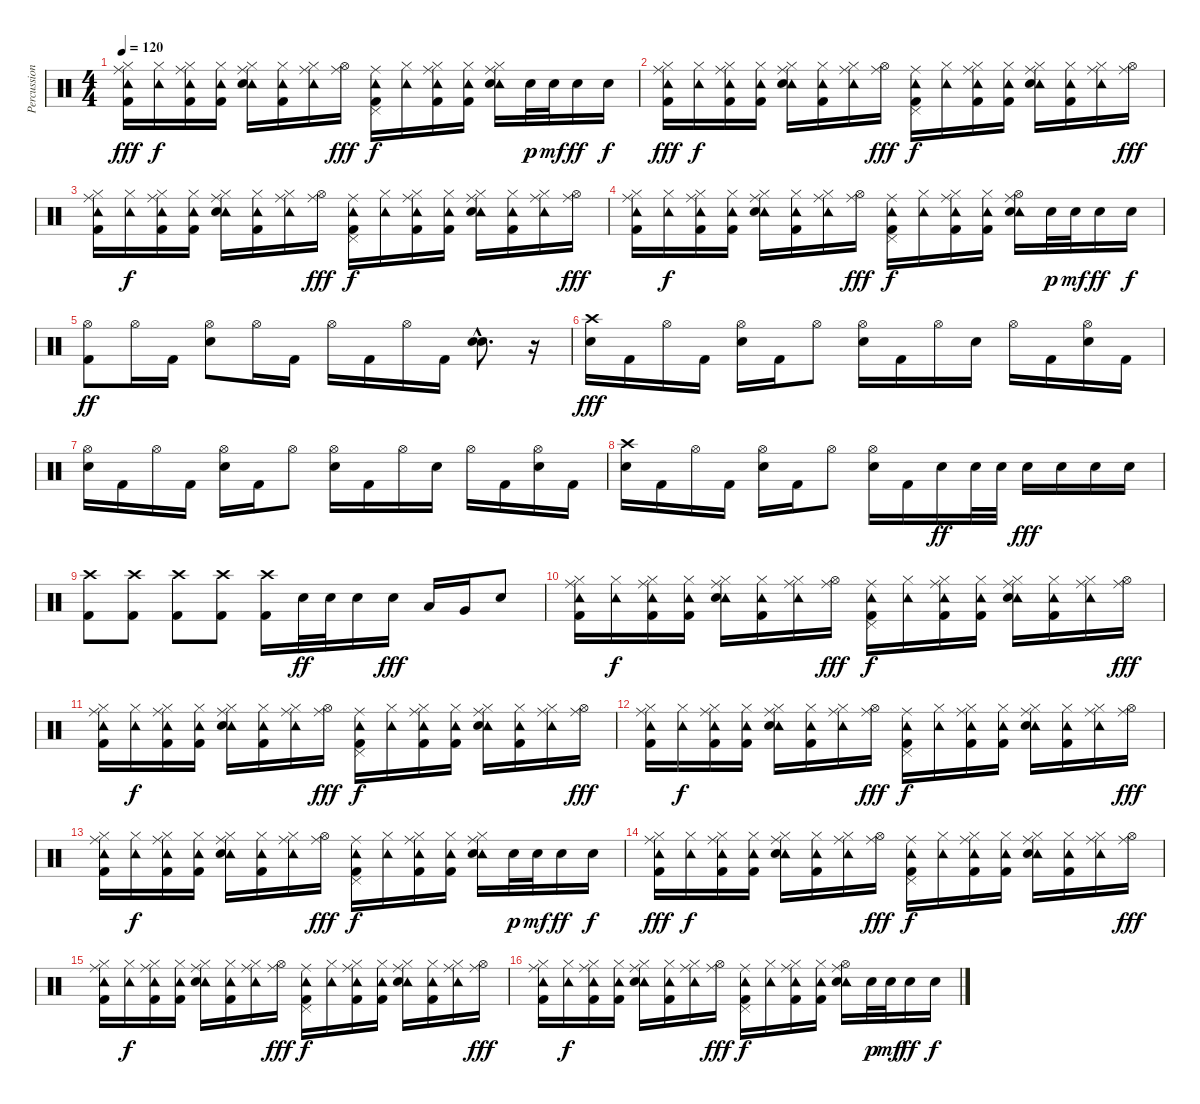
\track ("Percussion" "Percussion") {instrument percussion}
\staff {score}
\articulation defaults
\ts (4 4)
\tempo 120
\clef neutral
\ks c
("Tambourine (hit)" "Ride (middle)" "Hi-Hat (closed)" "Kick (hit) 2").16{dy fff} ("Tambourine (hit)" "Hi-Hat (closed)").16{dy f} ("Tambourine (hit)" "Ride (middle)" "Hi-Hat (closed)" "Kick (hit) 2").16 ("Tambourine (hit)" "Hi-Hat (closed)" "Kick (hit) 2").16 ("Tambourine (hit)" "Ride (middle)" "Hi-Hat (closed)" "Electric Snare (hit)").16 ("Tambourine (hit)" "Hi-Hat (closed)" "Kick (hit) 2").16 ("Tambourine (hit)" "Ride (middle)" "Hi-Hat (closed)").16 ("Ride (middle)" "Hi-Hat (open)").16{dy fff} ("Tambourine (hit)" "Ride (middle)" "Pedal Hi-Hat (hit)" "Kick (hit) 2").16{dy f} ("Tambourine (hit)" "Hi-Hat (closed)").16 ("Tambourine (hit)" "Ride (middle)" "Hi-Hat (closed)" "Kick (hit) 2").16 ("Tambourine (hit)" "Hi-Hat (closed)" "Kick (hit) 2").16 ("Tambourine (hit)" "Ride (middle)" "Hi-Hat (closed)" "Electric Snare (hit)").16 "Electric Snare (hit)".32{dy p} "Electric Snare (hit)".32{dy mf} "Electric Snare (hit)".16{dy ff} "Electric Snare (hit)".16{dy f} |
("Tambourine (hit)" "Ride (middle)" "Hi-Hat (closed)" "Kick (hit) 2").16{dy fff} ("Tambourine (hit)" "Hi-Hat (closed)").16{dy f} ("Tambourine (hit)" "Ride (middle)" "Hi-Hat (closed)" "Kick (hit) 2").16 ("Tambourine (hit)" "Hi-Hat (closed)" "Kick (hit) 2").16 ("Tambourine (hit)" "Ride (middle)" "Hi-Hat (closed)" "Electric Snare (hit)").16 ("Tambourine (hit)" "Hi-Hat (closed)" "Kick (hit) 2").16 ("Tambourine (hit)" "Ride (middle)" "Hi-Hat (closed)").16 ("Ride (middle)" "Hi-Hat (open)").16{dy fff} ("Tambourine (hit)" "Ride (middle)" "Pedal Hi-Hat (hit)" "Kick (hit) 2").16{dy f} ("Tambourine (hit)" "Hi-Hat (closed)").16 ("Tambourine (hit)" "Ride (middle)" "Hi-Hat (closed)" "Kick (hit) 2").16 ("Tambourine (hit)" "Hi-Hat (closed)" "Kick (hit) 2").16 ("Tambourine (hit)" "Ride (middle)" "Hi-Hat (closed)" "Electric Snare (hit)").16 ("Tambourine (hit)" "Hi-Hat (closed)" "Kick (hit) 2").16 ("Tambourine (hit)" "Ride (middle)" "Hi-Hat (closed)").16 ("Ride (middle)" "Hi-Hat (open)").16{dy fff} |
("Tambourine (hit)" "Ride (middle)" "Hi-Hat (closed)" "Kick (hit) 2").16 ("Tambourine (hit)" "Hi-Hat (closed)").16{dy f} ("Tambourine (hit)" "Ride (middle)" "Hi-Hat (closed)" "Kick (hit) 2").16 ("Tambourine (hit)" "Hi-Hat (closed)" "Kick (hit) 2").16 ("Tambourine (hit)" "Ride (middle)" "Hi-Hat (closed)" "Electric Snare (hit)").16 ("Tambourine (hit)" "Hi-Hat (closed)" "Kick (hit) 2").16 ("Tambourine (hit)" "Ride (middle)" "Hi-Hat (closed)").16 ("Ride (middle)" "Hi-Hat (open)").16{dy fff} ("Tambourine (hit)" "Ride (middle)" "Pedal Hi-Hat (hit)" "Kick (hit) 2").16{dy f} ("Tambourine (hit)" "Hi-Hat (closed)").16 ("Tambourine (hit)" "Ride (middle)" "Hi-Hat (closed)" "Kick (hit) 2").16 ("Tambourine (hit)" "Hi-Hat (closed)" "Kick (hit) 2").16 ("Tambourine (hit)" "Ride (middle)" "Hi-Hat (closed)" "Electric Snare (hit)").16 ("Tambourine (hit)" "Hi-Hat (closed)" "Kick (hit) 2").16 ("Tambourine (hit)" "Ride (middle)" "Hi-Hat (closed)").16 ("Ride (middle)" "Hi-Hat (open)").16{dy fff} |
("Tambourine (hit)" "Ride (middle)" "Hi-Hat (closed)" "Kick (hit) 2").16 ("Tambourine (hit)" "Hi-Hat (closed)").16{dy f} ("Tambourine (hit)" "Ride (middle)" "Hi-Hat (closed)" "Kick (hit) 2").16 ("Tambourine (hit)" "Hi-Hat (closed)" "Kick (hit) 2").16 ("Tambourine (hit)" "Ride (middle)" "Hi-Hat (closed)" "Electric Snare (hit)").16 ("Tambourine (hit)" "Hi-Hat (closed)" "Kick (hit) 2").16 ("Tambourine (hit)" "Ride (middle)" "Hi-Hat (closed)").16 ("Ride (middle)" "Hi-Hat (open)").16{dy fff} ("Tambourine (hit)" "Ride (middle)" "Pedal Hi-Hat (hit)" "Kick (hit) 2").16{dy f} ("Tambourine (hit)" "Hi-Hat (closed)").16 ("Tambourine (hit)" "Ride (middle)" "Hi-Hat (closed)" "Kick (hit) 2").16 ("Tambourine (hit)" "Hi-Hat (closed)" "Kick (hit) 2").16 ("Tambourine (hit)" "Ride (middle)" "Hi-Hat (open)" "Electric Snare (hit)").16 "Electric Snare (hit)".32{dy p} "Electric Snare (hit)".32{dy mf} "Electric Snare (hit)".16{dy ff} "Electric Snare (hit)".16{dy f} |
("Hi-Hat (open)" "Kick (hit) 2").8{dy ff} "Hi-Hat (open)".16 "Kick (hit) 2".16 ("Hi-Hat (open)" "Electric Snare (hit)").8 "Hi-Hat (open)".16 "Kick (hit) 2".16 "Hi-Hat (open)".16 "Kick (hit) 2".16 "Hi-Hat (open)".16 "Kick (hit) 2".16 ("Electric Snare (hit)" "Electric Snare (hit)"{hac}).8{d} r.16 |
("Crash high (hit)" "Electric Snare (hit)").16{dy fff} "Kick (hit) 2".16 "Hi-Hat (open)".16 "Kick (hit) 2".16 ("Hi-Hat (open)" "Electric Snare (hit)").16 "Kick (hit) 2".16 "Hi-Hat (open)".8 ("Hi-Hat (open)" "Electric Snare (hit)").16 "Kick (hit) 2".16 "Hi-Hat (open)".16 "Electric Snare (hit)".16 "Hi-Hat (open)".16 "Kick (hit) 2".16 ("Hi-Hat (open)" "Electric Snare (hit)").16 "Kick (hit) 2".16 |
("Hi-Hat (open)" "Electric Snare (hit)").16 "Kick (hit) 2".16 "Hi-Hat (open)".16 "Kick (hit) 2".16 ("Hi-Hat (open)" "Electric Snare (hit)").16 "Kick (hit) 2".16 "Hi-Hat (open)".8 ("Hi-Hat (open)" "Electric Snare (hit)").16 "Kick (hit) 2".16 "Hi-Hat (open)".16 "Electric Snare (hit)".16 "Hi-Hat (open)".16 "Kick (hit) 2".16 ("Hi-Hat (open)" "Electric Snare (hit)").16 "Kick (hit) 2".16 |
("Crash high (hit)" "Electric Snare (hit)").16 "Kick (hit) 2".16 "Hi-Hat (open)".16 "Kick (hit) 2".16 ("Hi-Hat (open)" "Electric Snare (hit)").16 "Kick (hit) 2".16 "Hi-Hat (open)".8 ("Hi-Hat (open)" "Electric Snare (hit)").16 "Kick (hit) 2".16 "Electric Snare (hit)".16{dy ff} "Electric Snare (hit)".32 "Electric Snare (hit)".32 "Electric Snare (hit)".16{dy fff} "Electric Snare (hit)".16 "Electric Snare (hit)".16 "Electric Snare (hit)".16 |
("Crash high (hit)" "Kick (hit) 2").8 ("Crash high (hit)" "Kick (hit) 2").8 ("Crash high (hit)" "Kick (hit) 2").8 ("Crash high (hit)" "Kick (hit) 2").8 ("Crash high (hit)" "Kick (hit) 2").16 "Electric Snare (hit)".32{dy ff} "Electric Snare (hit)".32 "Electric Snare (hit)".16 "Electric Snare (hit)".16{dy fff} "Low Tom (hit)".16 "Very Low Tom (hit)".16 "Electric Snare (hit)".8 |
("Tambourine (hit)" "Ride (middle)" "Hi-Hat (closed)" "Kick (hit) 2").16 ("Tambourine (hit)" "Hi-Hat (closed)").16{dy f} ("Tambourine (hit)" "Ride (middle)" "Hi-Hat (closed)" "Kick (hit) 2").16 ("Tambourine (hit)" "Hi-Hat (closed)" "Kick (hit) 2").16 ("Tambourine (hit)" "Ride (middle)" "Hi-Hat (closed)" "Electric Snare (hit)").16 ("Tambourine (hit)" "Hi-Hat (closed)" "Kick (hit) 2").16 ("Tambourine (hit)" "Ride (middle)" "Hi-Hat (closed)").16 ("Ride (middle)" "Hi-Hat (open)").16{dy fff} ("Tambourine (hit)" "Ride (middle)" "Pedal Hi-Hat (hit)" "Kick (hit) 2").16{dy f} ("Tambourine (hit)" "Hi-Hat (closed)").16 ("Tambourine (hit)" "Ride (middle)" "Hi-Hat (closed)" "Kick (hit) 2").16 ("Tambourine (hit)" "Hi-Hat (closed)" "Kick (hit) 2").16 ("Tambourine (hit)" "Ride (middle)" "Hi-Hat (closed)" "Electric Snare (hit)").16 ("Tambourine (hit)" "Hi-Hat (closed)" "Kick (hit) 2").16 ("Tambourine (hit)" "Ride (middle)" "Hi-Hat (closed)").16 ("Ride (middle)" "Hi-Hat (open)").16{dy fff} |
("Tambourine (hit)" "Ride (middle)" "Hi-Hat (closed)" "Kick (hit) 2").16 ("Tambourine (hit)" "Hi-Hat (closed)").16{dy f} ("Tambourine (hit)" "Ride (middle)" "Hi-Hat (closed)" "Kick (hit) 2").16 ("Tambourine (hit)" "Hi-Hat (closed)" "Kick (hit) 2").16 ("Tambourine (hit)" "Ride (middle)" "Hi-Hat (closed)" "Electric Snare (hit)").16 ("Tambourine (hit)" "Hi-Hat (closed)" "Kick (hit) 2").16 ("Tambourine (hit)" "Ride (middle)" "Hi-Hat (closed)").16 ("Ride (middle)" "Hi-Hat (open)").16{dy fff} ("Tambourine (hit)" "Ride (middle)" "Pedal Hi-Hat (hit)" "Kick (hit) 2").16{dy f} ("Tambourine (hit)" "Hi-Hat (closed)").16 ("Tambourine (hit)" "Ride (middle)" "Hi-Hat (closed)" "Kick (hit) 2").16 ("Tambourine (hit)" "Hi-Hat (closed)" "Kick (hit) 2").16 ("Tambourine (hit)" "Ride (middle)" "Hi-Hat (closed)" "Electric Snare (hit)").16 ("Tambourine (hit)" "Hi-Hat (closed)" "Kick (hit) 2").16 ("Tambourine (hit)" "Ride (middle)" "Hi-Hat (closed)").16 ("Ride (middle)" "Hi-Hat (open)").16{dy fff} |
("Tambourine (hit)" "Ride (middle)" "Hi-Hat (closed)" "Kick (hit) 2").16 ("Tambourine (hit)" "Hi-Hat (closed)").16{dy f} ("Tambourine (hit)" "Ride (middle)" "Hi-Hat (closed)" "Kick (hit) 2").16 ("Tambourine (hit)" "Hi-Hat (closed)" "Kick (hit) 2").16 ("Tambourine (hit)" "Ride (middle)" "Hi-Hat (closed)" "Electric Snare (hit)").16 ("Tambourine (hit)" "Hi-Hat (closed)" "Kick (hit) 2").16 ("Tambourine (hit)" "Ride (middle)" "Hi-Hat (closed)").16 ("Ride (middle)" "Hi-Hat (open)").16{dy fff} ("Tambourine (hit)" "Ride (middle)" "Pedal Hi-Hat (hit)" "Kick (hit) 2").16{dy f} ("Tambourine (hit)" "Hi-Hat (closed)").16 ("Tambourine (hit)" "Ride (middle)" "Hi-Hat (closed)" "Kick (hit) 2").16 ("Tambourine (hit)" "Hi-Hat (closed)" "Kick (hit) 2").16 ("Tambourine (hit)" "Ride (middle)" "Hi-Hat (closed)" "Electric Snare (hit)").16 ("Tambourine (hit)" "Hi-Hat (closed)" "Kick (hit) 2").16 ("Tambourine (hit)" "Ride (middle)" "Hi-Hat (closed)").16 ("Ride (middle)" "Hi-Hat (open)").16{dy fff} |
("Tambourine (hit)" "Ride (middle)" "Hi-Hat (closed)" "Kick (hit) 2").16 ("Tambourine (hit)" "Hi-Hat (closed)").16{dy f} ("Tambourine (hit)" "Ride (middle)" "Hi-Hat (closed)" "Kick (hit) 2").16 ("Tambourine (hit)" "Hi-Hat (closed)" "Kick (hit) 2").16 ("Tambourine (hit)" "Ride (middle)" "Hi-Hat (closed)" "Electric Snare (hit)").16 ("Tambourine (hit)" "Hi-Hat (closed)" "Kick (hit) 2").16 ("Tambourine (hit)" "Ride (middle)" "Hi-Hat (closed)").16 ("Ride (middle)" "Hi-Hat (open)").16{dy fff} ("Tambourine (hit)" "Ride (middle)" "Pedal Hi-Hat (hit)" "Kick (hit) 2").16{dy f} ("Tambourine (hit)" "Hi-Hat (closed)").16 ("Tambourine (hit)" "Ride (middle)" "Hi-Hat (closed)" "Kick (hit) 2").16 ("Tambourine (hit)" "Hi-Hat (closed)" "Kick (hit) 2").16 ("Tambourine (hit)" "Ride (middle)" "Hi-Hat (closed)" "Electric Snare (hit)").16 "Electric Snare (hit)".32{dy p} "Electric Snare (hit)".32{dy mf} "Electric Snare (hit)".16{dy ff} "Electric Snare (hit)".16{dy f} |
("Tambourine (hit)" "Ride (middle)" "Hi-Hat (closed)" "Kick (hit) 2").16{dy fff} ("Tambourine (hit)" "Hi-Hat (closed)").16{dy f} ("Tambourine (hit)" "Ride (middle)" "Hi-Hat (closed)" "Kick (hit) 2").16 ("Tambourine (hit)" "Hi-Hat (closed)" "Kick (hit) 2").16 ("Tambourine (hit)" "Ride (middle)" "Hi-Hat (closed)" "Electric Snare (hit)").16 ("Tambourine (hit)" "Hi-Hat (closed)" "Kick (hit) 2").16 ("Tambourine (hit)" "Ride (middle)" "Hi-Hat (closed)").16 ("Ride (middle)" "Hi-Hat (open)").16{dy fff} ("Tambourine (hit)" "Ride (middle)" "Pedal Hi-Hat (hit)" "Kick (hit) 2").16{dy f} ("Tambourine (hit)" "Hi-Hat (closed)").16 ("Tambourine (hit)" "Ride (middle)" "Hi-Hat (closed)" "Kick (hit) 2").16 ("Tambourine (hit)" "Hi-Hat (closed)" "Kick (hit) 2").16 ("Tambourine (hit)" "Ride (middle)" "Hi-Hat (closed)" "Electric Snare (hit)").16 ("Tambourine (hit)" "Hi-Hat (closed)" "Kick (hit) 2").16 ("Tambourine (hit)" "Ride (middle)" "Hi-Hat (closed)").16 ("Ride (middle)" "Hi-Hat (open)").16{dy fff} |
("Tambourine (hit)" "Ride (middle)" "Hi-Hat (closed)" "Kick (hit) 2").16 ("Tambourine (hit)" "Hi-Hat (closed)").16{dy f} ("Tambourine (hit)" "Ride (middle)" "Hi-Hat (closed)" "Kick (hit) 2").16 ("Tambourine (hit)" "Hi-Hat (closed)" "Kick (hit) 2").16 ("Tambourine (hit)" "Ride (middle)" "Hi-Hat (closed)" "Electric Snare (hit)").16 ("Tambourine (hit)" "Hi-Hat (closed)" "Kick (hit) 2").16 ("Tambourine (hit)" "Ride (middle)" "Hi-Hat (closed)").16 ("Ride (middle)" "Hi-Hat (open)").16{dy fff} ("Tambourine (hit)" "Ride (middle)" "Pedal Hi-Hat (hit)" "Kick (hit) 2").16{dy f} ("Tambourine (hit)" "Hi-Hat (closed)").16 ("Tambourine (hit)" "Ride (middle)" "Hi-Hat (closed)" "Kick (hit) 2").16 ("Tambourine (hit)" "Hi-Hat (closed)" "Kick (hit) 2").16 ("Tambourine (hit)" "Ride (middle)" "Hi-Hat (closed)" "Electric Snare (hit)").16 ("Tambourine (hit)" "Hi-Hat (closed)" "Kick (hit) 2").16 ("Tambourine (hit)" "Ride (middle)" "Hi-Hat (closed)").16 ("Ride (middle)" "Hi-Hat (open)").16{dy fff} |
("Tambourine (hit)" "Ride (middle)" "Hi-Hat (closed)" "Kick (hit) 2").16 ("Tambourine (hit)" "Hi-Hat (closed)").16{dy f} ("Tambourine (hit)" "Ride (middle)" "Hi-Hat (closed)" "Kick (hit) 2").16 ("Tambourine (hit)" "Hi-Hat (closed)" "Kick (hit) 2").16 ("Tambourine (hit)" "Ride (middle)" "Hi-Hat (closed)" "Electric Snare (hit)").16 ("Tambourine (hit)" "Hi-Hat (closed)" "Kick (hit) 2").16 ("Tambourine (hit)" "Ride (middle)" "Hi-Hat (closed)").16 ("Ride (middle)" "Hi-Hat (open)").16{dy fff} ("Tambourine (hit)" "Ride (middle)" "Pedal Hi-Hat (hit)" "Kick (hit) 2").16{dy f} ("Tambourine (hit)" "Hi-Hat (closed)").16 ("Tambourine (hit)" "Ride (middle)" "Hi-Hat (closed)" "Kick (hit) 2").16 ("Tambourine (hit)" "Hi-Hat (closed)" "Kick (hit) 2").16 ("Tambourine (hit)" "Ride (middle)" "Hi-Hat (open)" "Electric Snare (hit)").16 "Electric Snare (hit)".32{dy p} "Electric Snare (hit)".32{dy mf} "Electric Snare (hit)".16{dy ff} "Electric Snare (hit)".16{dy f}
